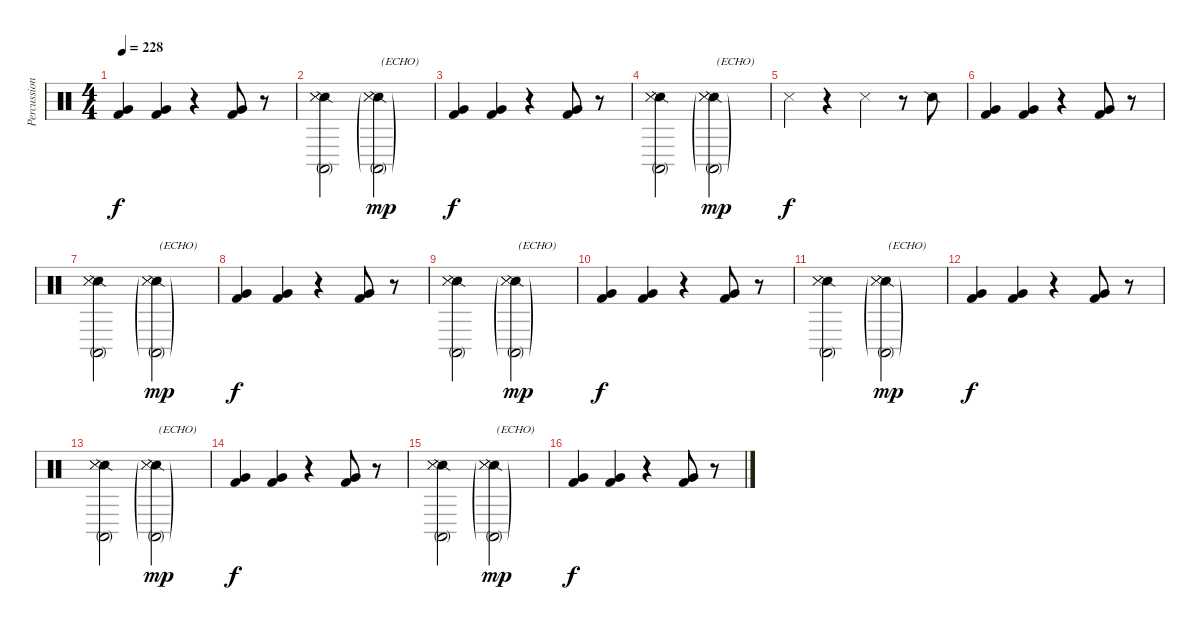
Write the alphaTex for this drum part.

\track ("Percussions" "Percussion") {instrument percussion}
\staff {score}
\articulation defaults
\ts (4 4)
\tempo 228
\clef neutral
\ks c
("Kick (hit) 2" "Very Low Tom (hit)").4{dy f} ("Kick (hit) 2" "Very Low Tom (hit)").4 r.4 ("Kick (hit) 2" "Very Low Tom (hit)").8 r.8 |
("Snare (side stick) 2" "Snare (side stick) 3" "Conga high (mute)" "Metronome (hit)").2 ("Snare (side stick) 2"{g} "Snare (side stick) 3"{g} "Conga high (mute)"{g} "Metronome (hit)"{g}).2{txt "(ECHO)" dy mp} |
("Kick (hit) 2" "Very Low Tom (hit)").4{dy f} ("Kick (hit) 2" "Very Low Tom (hit)").4 r.4 ("Kick (hit) 2" "Very Low Tom (hit)").8 r.8 |
("Snare (side stick) 2" "Snare (side stick) 3" "Conga high (mute)" "Metronome (hit)").2 ("Snare (side stick) 2"{g} "Snare (side stick) 3"{g} "Conga high (mute)"{g} "Metronome (hit)"{g}).2{txt "(ECHO)" dy mp} |
"Snare (side stick) 3".4{dy f} r.4 "Snare (side stick) 3".4 r.8 "Snare (side stick) 2".8 |
("Kick (hit) 2" "Very Low Tom (hit)").4 ("Kick (hit) 2" "Very Low Tom (hit)").4 r.4 ("Kick (hit) 2" "Very Low Tom (hit)").8 r.8 |
("Snare (side stick) 2" "Snare (side stick) 3" "Conga high (mute)" "Metronome (hit)").2 ("Snare (side stick) 2"{g} "Snare (side stick) 3"{g} "Conga high (mute)"{g} "Metronome (hit)"{g}).2{txt "(ECHO)" dy mp} |
("Kick (hit) 2" "Very Low Tom (hit)").4{dy f} ("Kick (hit) 2" "Very Low Tom (hit)").4 r.4 ("Kick (hit) 2" "Very Low Tom (hit)").8 r.8 |
("Snare (side stick) 2" "Snare (side stick) 3" "Conga high (mute)" "Metronome (hit)").2 ("Snare (side stick) 2"{g} "Snare (side stick) 3"{g} "Conga high (mute)"{g} "Metronome (hit)"{g}).2{txt "(ECHO)" dy mp} |
("Kick (hit) 2" "Very Low Tom (hit)").4{dy f} ("Kick (hit) 2" "Very Low Tom (hit)").4 r.4 ("Kick (hit) 2" "Very Low Tom (hit)").8 r.8 |
("Snare (side stick) 2" "Snare (side stick) 3" "Conga high (mute)" "Metronome (hit)").2 ("Snare (side stick) 2"{g} "Snare (side stick) 3"{g} "Conga high (mute)"{g} "Metronome (hit)"{g}).2{txt "(ECHO)" dy mp} |
("Kick (hit) 2" "Very Low Tom (hit)").4{dy f} ("Kick (hit) 2" "Very Low Tom (hit)").4 r.4 ("Kick (hit) 2" "Very Low Tom (hit)").8 r.8 |
("Snare (side stick) 2" "Snare (side stick) 3" "Conga high (mute)" "Metronome (hit)").2 ("Snare (side stick) 2"{g} "Snare (side stick) 3"{g} "Conga high (mute)"{g} "Metronome (hit)"{g}).2{txt "(ECHO)" dy mp} |
("Kick (hit) 2" "Very Low Tom (hit)").4{dy f} ("Kick (hit) 2" "Very Low Tom (hit)").4 r.4 ("Kick (hit) 2" "Very Low Tom (hit)").8 r.8 |
("Snare (side stick) 2" "Snare (side stick) 3" "Conga high (mute)" "Metronome (hit)").2 ("Snare (side stick) 2"{g} "Snare (side stick) 3"{g} "Conga high (mute)"{g} "Metronome (hit)"{g}).2{txt "(ECHO)" dy mp} |
("Kick (hit) 2" "Very Low Tom (hit)").4{dy f} ("Kick (hit) 2" "Very Low Tom (hit)").4 r.4 ("Kick (hit) 2" "Very Low Tom (hit)").8 r.8
